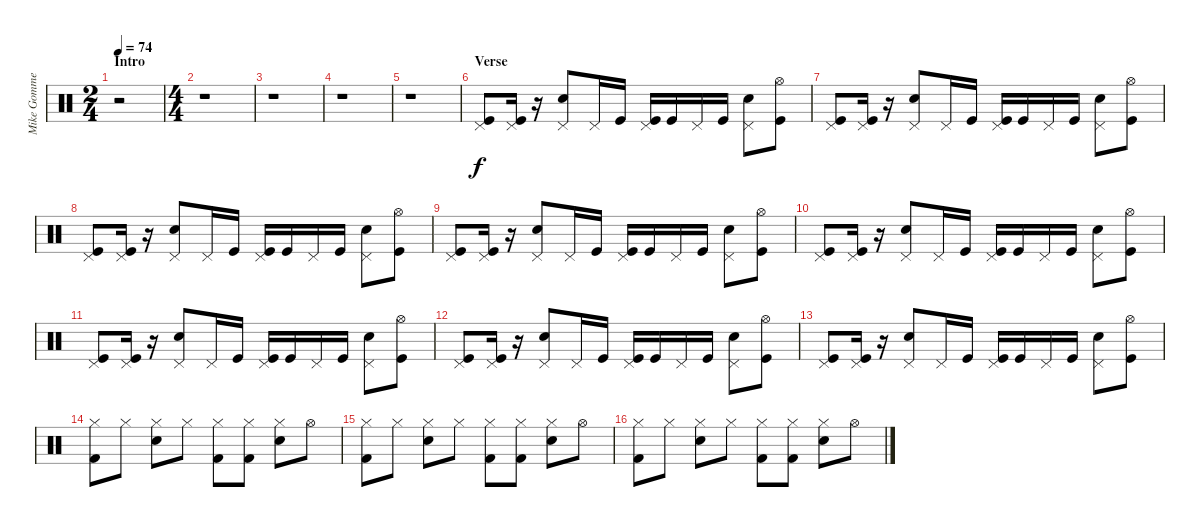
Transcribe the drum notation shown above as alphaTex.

\track ("Mike Gommeringer" "Mike Gomme") {instrument percussion}
\staff {score}
\articulation defaults
\ts (2 4)
\section ("" "Intro")
\tempo 74
\clef neutral
\ks c
r.2{dy f} |
\ts (4 4)
r.1 |
r.1 |
r.1 |
r.1 |
\section ("" "Verse")
("Pedal Hi-Hat (hit)" "Kick (hit)").8{volume 8} ("Pedal Hi-Hat (hit)" "Kick (hit)").16 r.16 ("Pedal Hi-Hat (hit)" "Electric Snare (hit)").8 "Pedal Hi-Hat (hit)".16 "Kick (hit)".16 ("Pedal Hi-Hat (hit)" "Kick (hit)").16 "Kick (hit)".16 "Pedal Hi-Hat (hit)".16 "Kick (hit)".16 ("Pedal Hi-Hat (hit)" "Electric Snare (hit)").8 ("Hi-Hat (open)" "Kick (hit)").8 |
("Pedal Hi-Hat (hit)" "Kick (hit)").8 ("Pedal Hi-Hat (hit)" "Kick (hit)").16 r.16 ("Pedal Hi-Hat (hit)" "Electric Snare (hit)").8 "Pedal Hi-Hat (hit)".16 "Kick (hit)".16 ("Pedal Hi-Hat (hit)" "Kick (hit)").16 "Kick (hit)".16 "Pedal Hi-Hat (hit)".16 "Kick (hit)".16 ("Pedal Hi-Hat (hit)" "Electric Snare (hit)").8 ("Hi-Hat (open)" "Kick (hit)").8 |
("Pedal Hi-Hat (hit)" "Kick (hit)").8 ("Pedal Hi-Hat (hit)" "Kick (hit)").16 r.16 ("Pedal Hi-Hat (hit)" "Electric Snare (hit)").8 "Pedal Hi-Hat (hit)".16 "Kick (hit)".16 ("Pedal Hi-Hat (hit)" "Kick (hit)").16 "Kick (hit)".16 "Pedal Hi-Hat (hit)".16 "Kick (hit)".16 ("Pedal Hi-Hat (hit)" "Electric Snare (hit)").8 ("Hi-Hat (open)" "Kick (hit)").8 |
("Pedal Hi-Hat (hit)" "Kick (hit)").8 ("Pedal Hi-Hat (hit)" "Kick (hit)").16 r.16 ("Pedal Hi-Hat (hit)" "Electric Snare (hit)").8 "Pedal Hi-Hat (hit)".16 "Kick (hit)".16 ("Pedal Hi-Hat (hit)" "Kick (hit)").16 "Kick (hit)".16 "Pedal Hi-Hat (hit)".16 "Kick (hit)".16 ("Pedal Hi-Hat (hit)" "Electric Snare (hit)").8 ("Hi-Hat (open)" "Kick (hit)").8 |
("Pedal Hi-Hat (hit)" "Kick (hit)").8 ("Pedal Hi-Hat (hit)" "Kick (hit)").16 r.16 ("Pedal Hi-Hat (hit)" "Electric Snare (hit)").8 "Pedal Hi-Hat (hit)".16 "Kick (hit)".16 ("Pedal Hi-Hat (hit)" "Kick (hit)").16 "Kick (hit)".16 "Pedal Hi-Hat (hit)".16 "Kick (hit)".16 ("Pedal Hi-Hat (hit)" "Electric Snare (hit)").8 ("Hi-Hat (open)" "Kick (hit)").8 |
("Pedal Hi-Hat (hit)" "Kick (hit)").8 ("Pedal Hi-Hat (hit)" "Kick (hit)").16 r.16 ("Pedal Hi-Hat (hit)" "Electric Snare (hit)").8 "Pedal Hi-Hat (hit)".16 "Kick (hit)".16 ("Pedal Hi-Hat (hit)" "Kick (hit)").16 "Kick (hit)".16 "Pedal Hi-Hat (hit)".16 "Kick (hit)".16 ("Pedal Hi-Hat (hit)" "Electric Snare (hit)").8 ("Hi-Hat (open)" "Kick (hit)").8 |
("Pedal Hi-Hat (hit)" "Kick (hit)").8 ("Pedal Hi-Hat (hit)" "Kick (hit)").16 r.16 ("Pedal Hi-Hat (hit)" "Electric Snare (hit)").8 "Pedal Hi-Hat (hit)".16 "Kick (hit)".16 ("Pedal Hi-Hat (hit)" "Kick (hit)").16 "Kick (hit)".16 "Pedal Hi-Hat (hit)".16 "Kick (hit)".16 ("Pedal Hi-Hat (hit)" "Electric Snare (hit)").8 ("Hi-Hat (open)" "Kick (hit)").8 |
("Pedal Hi-Hat (hit)" "Kick (hit)").8 ("Pedal Hi-Hat (hit)" "Kick (hit)").16 r.16 ("Pedal Hi-Hat (hit)" "Electric Snare (hit)").8 "Pedal Hi-Hat (hit)".16 "Kick (hit)".16 ("Pedal Hi-Hat (hit)" "Kick (hit)").16 "Kick (hit)".16 "Pedal Hi-Hat (hit)".16 "Kick (hit)".16 ("Pedal Hi-Hat (hit)" "Electric Snare (hit)").8 ("Hi-Hat (open)" "Kick (hit)").8 |
("Hi-Hat (closed)" "Kick (hit) 2").8{volume 11} "Hi-Hat (closed)".8 ("Hi-Hat (closed)" "Snare (hit) 2").8 "Hi-Hat (closed)".8 ("Hi-Hat (closed)" "Kick (hit) 2").8 ("Hi-Hat (closed)" "Kick (hit) 2").8 ("Hi-Hat (closed)" "Snare (hit) 2").8 "Hi-Hat (open)".8 |
("Hi-Hat (closed)" "Kick (hit) 2").8 "Hi-Hat (closed)".8 ("Hi-Hat (closed)" "Snare (hit) 2").8 "Hi-Hat (closed)".8 ("Hi-Hat (closed)" "Kick (hit) 2").8 ("Hi-Hat (closed)" "Kick (hit) 2").8 ("Hi-Hat (closed)" "Snare (hit) 2").8 "Hi-Hat (open)".8 |
("Hi-Hat (closed)" "Kick (hit) 2").8 "Hi-Hat (closed)".8 ("Hi-Hat (closed)" "Snare (hit) 2").8 "Hi-Hat (closed)".8 ("Hi-Hat (closed)" "Kick (hit) 2").8 ("Hi-Hat (closed)" "Kick (hit) 2").8 ("Hi-Hat (closed)" "Snare (hit) 2").8 "Hi-Hat (open)".8
